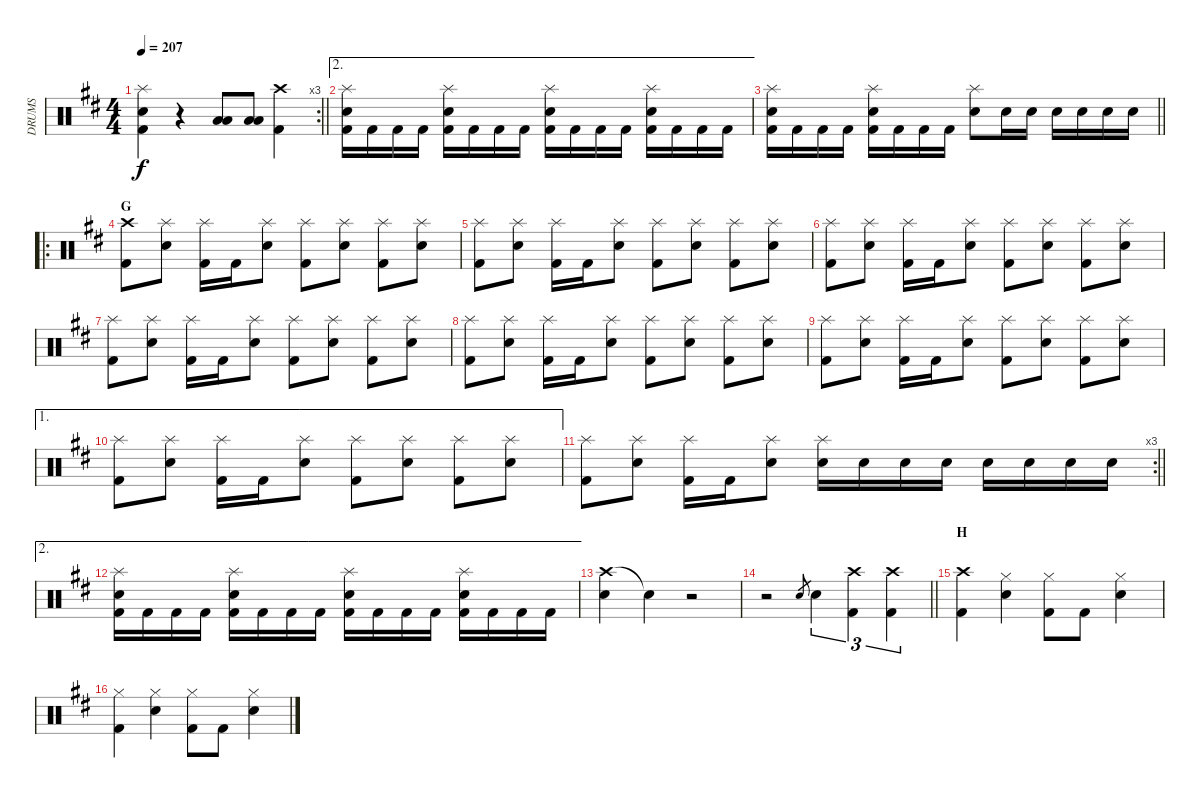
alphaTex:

\track ("DRUMS" "DRUMS") {instrument percussion}
\staff {score}
\articulation defaults
\rc 3
\ts (4 4)
\tempo 207
\clef neutral
\barLineRight lightlight
\ks d
("Splash (hit)" "Kick (hit) 2" "Snare (hit) 2").4{dy f} r.4 ("Low Floor Tom (hit)" "Low Tom (hit)").8 ("Low Floor Tom (hit)" "Low Tom (hit)").8 ("Crash high (hit)" "Kick (hit) 2").4 |
\ae 2
("Splash (hit)" "Snare (hit) 2" "Kick (hit) 2").16 "Kick (hit) 2".16 "Kick (hit) 2".16 "Kick (hit) 2".16 ("Splash (hit)" "Snare (hit) 2" "Kick (hit) 2").16 "Kick (hit) 2".16 "Kick (hit) 2".16 "Kick (hit) 2".16 ("Splash (hit)" "Snare (hit) 2" "Kick (hit) 2").16 "Kick (hit) 2".16 "Kick (hit) 2".16 "Kick (hit) 2".16 ("Splash (hit)" "Snare (hit) 2" "Kick (hit) 2").16 "Kick (hit) 2".16 "Kick (hit) 2".16 "Kick (hit) 2".16 |
\barLineRight lightlight
("Splash (hit)" "Snare (hit) 2" "Kick (hit) 2").16 "Kick (hit) 2".16 "Kick (hit) 2".16 "Kick (hit) 2".16 ("Splash (hit)" "Snare (hit) 2" "Kick (hit) 2").16 "Kick (hit) 2".16 "Kick (hit) 2".16 "Kick (hit) 2".16 ("Splash (hit)" "Snare (hit) 2").8 "Snare (hit) 2".16 "Snare (hit) 2".16 "Snare (hit) 2".16 "Snare (hit) 2".16 "Snare (hit) 2".16 "Snare (hit) 2".16 |
\ro
\section ("" "G")
("Crash high (hit)" "Kick (hit) 2").8 ("Splash (hit)" "Snare (hit) 2").8 ("Splash (hit)" "Kick (hit) 2").16 "Kick (hit) 2".16 ("Splash (hit)" "Snare (hit) 2").8 ("Splash (hit)" "Kick (hit) 2").8 ("Splash (hit)" "Snare (hit) 2").8 ("Splash (hit)" "Kick (hit) 2").8 ("Splash (hit)" "Snare (hit) 2").8 |
("Splash (hit)" "Kick (hit) 2").8 ("Splash (hit)" "Snare (hit) 2").8 ("Splash (hit)" "Kick (hit) 2").16 "Kick (hit) 2".16 ("Splash (hit)" "Snare (hit) 2").8 ("Splash (hit)" "Kick (hit) 2").8 ("Splash (hit)" "Snare (hit) 2").8 ("Splash (hit)" "Kick (hit) 2").8 ("Splash (hit)" "Snare (hit) 2").8 |
("Splash (hit)" "Kick (hit) 2").8 ("Splash (hit)" "Snare (hit) 2").8 ("Splash (hit)" "Kick (hit) 2").16 "Kick (hit) 2".16 ("Splash (hit)" "Snare (hit) 2").8 ("Splash (hit)" "Kick (hit) 2").8 ("Splash (hit)" "Snare (hit) 2").8 ("Splash (hit)" "Kick (hit) 2").8 ("Splash (hit)" "Snare (hit) 2").8 |
("Splash (hit)" "Kick (hit) 2").8 ("Splash (hit)" "Snare (hit) 2").8 ("Splash (hit)" "Kick (hit) 2").16 "Kick (hit) 2".16 ("Splash (hit)" "Snare (hit) 2").8 ("Splash (hit)" "Kick (hit) 2").8 ("Splash (hit)" "Snare (hit) 2").8 ("Splash (hit)" "Kick (hit) 2").8 ("Splash (hit)" "Snare (hit) 2").8 |
("Splash (hit)" "Kick (hit) 2").8 ("Splash (hit)" "Snare (hit) 2").8 ("Splash (hit)" "Kick (hit) 2").16 "Kick (hit) 2".16 ("Splash (hit)" "Snare (hit) 2").8 ("Splash (hit)" "Kick (hit) 2").8 ("Splash (hit)" "Snare (hit) 2").8 ("Splash (hit)" "Kick (hit) 2").8 ("Splash (hit)" "Snare (hit) 2").8 |
("Splash (hit)" "Kick (hit) 2").8 ("Splash (hit)" "Snare (hit) 2").8 ("Splash (hit)" "Kick (hit) 2").16 "Kick (hit) 2".16 ("Splash (hit)" "Snare (hit) 2").8 ("Splash (hit)" "Kick (hit) 2").8 ("Splash (hit)" "Snare (hit) 2").8 ("Splash (hit)" "Kick (hit) 2").8 ("Splash (hit)" "Snare (hit) 2").8 |
\ae 1
("Splash (hit)" "Kick (hit) 2").8 ("Splash (hit)" "Snare (hit) 2").8 ("Splash (hit)" "Kick (hit) 2").16 "Kick (hit) 2".16 ("Splash (hit)" "Snare (hit) 2").8 ("Splash (hit)" "Kick (hit) 2").8 ("Splash (hit)" "Snare (hit) 2").8 ("Splash (hit)" "Kick (hit) 2").8 ("Splash (hit)" "Snare (hit) 2").8 |
\rc 3
\barLineRight lightlight
("Splash (hit)" "Kick (hit) 2").8 ("Splash (hit)" "Snare (hit) 2").8 ("Splash (hit)" "Kick (hit) 2").16 "Kick (hit) 2".16 ("Splash (hit)" "Snare (hit) 2").8 ("Splash (hit)" "Snare (hit) 2").16 "Snare (hit) 2".16 "Snare (hit) 2".16 "Snare (hit) 2".16 "Snare (hit) 2".16 "Snare (hit) 2".16 "Snare (hit) 2".16 "Snare (hit) 2".16 |
\ae 2
("Splash (hit)" "Snare (hit) 2" "Kick (hit) 2").16 "Kick (hit) 2".16 "Kick (hit) 2".16 "Kick (hit) 2".16 ("Splash (hit)" "Snare (hit) 2" "Kick (hit) 2").16 "Kick (hit) 2".16 "Kick (hit) 2".16 "Kick (hit) 2".16 ("Splash (hit)" "Snare (hit) 2" "Kick (hit) 2").16 "Kick (hit) 2".16 "Kick (hit) 2".16 "Kick (hit) 2".16 ("Splash (hit)" "Snare (hit) 2" "Kick (hit) 2").16 "Kick (hit) 2".16 "Kick (hit) 2".16 "Kick (hit) 2".16 |
("Crash high (hit)" "Snare (hit) 2").4 "Snare (hit)"{t}.4 r.2 |
\barLineRight lightlight
r.2 "Snare (hit) 2".8{gr} "Snare (hit) 2".4{tu (3 2)} ("Crash high (hit)" "Kick (hit) 2").4{tu (3 2)} ("Crash high (hit)" "Kick (hit) 2").4{tu (3 2)} |
\section ("" "H")
("Crash high (hit)" "Kick (hit) 2").4 ("Hi-Hat (closed)" "Snare (hit) 2").4 ("Hi-Hat (closed)" "Kick (hit) 2").8 "Kick (hit) 2".8 ("Hi-Hat (closed)" "Snare (hit) 2").4 |
("Hi-Hat (closed)" "Kick (hit) 2").4 ("Hi-Hat (closed)" "Snare (hit) 2").4 ("Hi-Hat (closed)" "Kick (hit) 2").8 "Kick (hit) 2".8 ("Hi-Hat (closed)" "Snare (hit) 2").4
